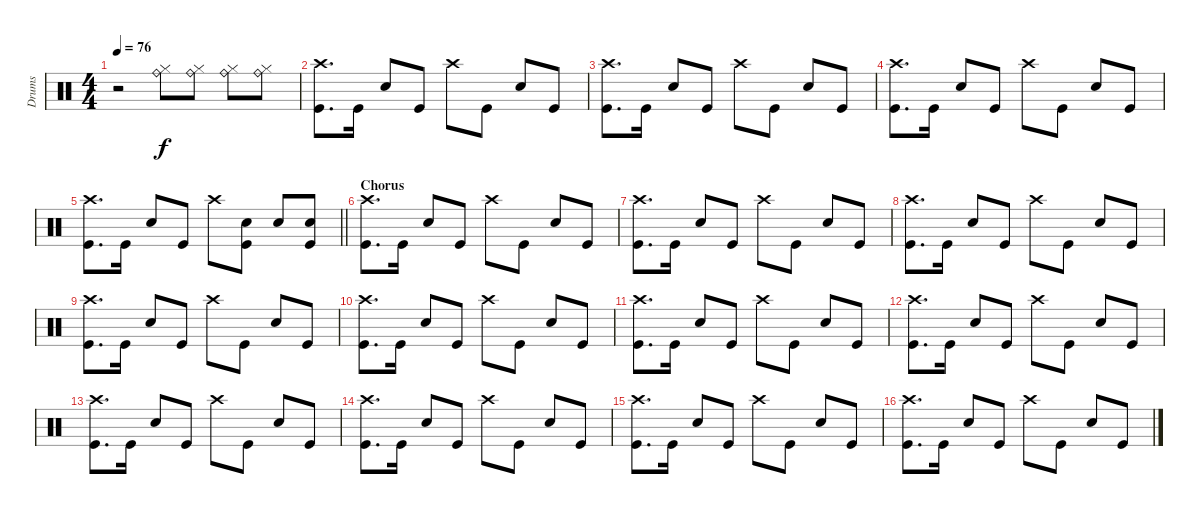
\track ("Drums" "Drums") {instrument percussion}
\staff {score}
\articulation defaults
\ts (4 4)
\tempo 76
\clef neutral
\ks c
r.2{dy f} ("Ride (bell)" "Hi-Hat (closed)").8 ("Ride (bell)" "Hi-Hat (closed)").8 ("Ride (bell)" "Hi-Hat (closed)").8 ("Ride (bell)" "Hi-Hat (closed)").8 |
("Crash high (hit)" "Kick (hit)").8{d} "Kick (hit)".16 "Snare (hit) 2".8 "Kick (hit)".8 "Crash high (hit)".8 "Kick (hit)".8 "Snare (hit) 2".8 "Kick (hit)".8 |
("Crash high (hit)" "Kick (hit)").8{d} "Kick (hit)".16 "Snare (hit) 2".8 "Kick (hit)".8 "Crash high (hit)".8 "Kick (hit)".8 "Snare (hit) 2".8 "Kick (hit)".8 |
("Crash high (hit)" "Kick (hit)").8{d} "Kick (hit)".16 "Snare (hit) 2".8 "Kick (hit)".8 "Crash high (hit)".8 "Kick (hit)".8 "Snare (hit) 2".8 "Kick (hit)".8 |
\barLineRight lightlight
("Crash high (hit)" "Kick (hit)").8{d} "Kick (hit)".16 "Snare (hit) 2".8 "Kick (hit)".8 "Crash high (hit)".8 ("Kick (hit)" "Snare (hit) 2").8 "Snare (hit) 2".8 ("Kick (hit)" "Snare (hit) 2").8 |
\section ("" "Chorus")
("Crash high (hit)" "Kick (hit)").8{d} "Kick (hit)".16 "Snare (hit) 2".8 "Kick (hit)".8 "Crash high (hit)".8 "Kick (hit)".8 "Snare (hit) 2".8 "Kick (hit)".8 |
("Crash high (hit)" "Kick (hit)").8{d} "Kick (hit)".16 "Snare (hit) 2".8 "Kick (hit)".8 "Crash high (hit)".8 "Kick (hit)".8 "Snare (hit) 2".8 "Kick (hit)".8 |
("Crash high (hit)" "Kick (hit)").8{d} "Kick (hit)".16 "Snare (hit) 2".8 "Kick (hit)".8 "Crash high (hit)".8 "Kick (hit)".8 "Snare (hit) 2".8 "Kick (hit)".8 |
("Crash high (hit)" "Kick (hit)").8{d} "Kick (hit)".16 "Snare (hit) 2".8 "Kick (hit)".8 "Crash high (hit)".8 "Kick (hit)".8 "Snare (hit) 2".8 "Kick (hit)".8 |
("Crash high (hit)" "Kick (hit)").8{d} "Kick (hit)".16 "Snare (hit) 2".8 "Kick (hit)".8 "Crash high (hit)".8 "Kick (hit)".8 "Snare (hit) 2".8 "Kick (hit)".8 |
("Crash high (hit)" "Kick (hit)").8{d} "Kick (hit)".16 "Snare (hit) 2".8 "Kick (hit)".8 "Crash high (hit)".8 "Kick (hit)".8 "Snare (hit) 2".8 "Kick (hit)".8 |
("Crash high (hit)" "Kick (hit)").8{d} "Kick (hit)".16 "Snare (hit) 2".8 "Kick (hit)".8 "Crash high (hit)".8 "Kick (hit)".8 "Snare (hit) 2".8 "Kick (hit)".8 |
("Crash high (hit)" "Kick (hit)").8{d} "Kick (hit)".16 "Snare (hit) 2".8 "Kick (hit)".8 "Crash high (hit)".8 "Kick (hit)".8 "Snare (hit) 2".8 "Kick (hit)".8 |
("Crash high (hit)" "Kick (hit)").8{d} "Kick (hit)".16 "Snare (hit) 2".8 "Kick (hit)".8 "Crash high (hit)".8 "Kick (hit)".8 "Snare (hit) 2".8 "Kick (hit)".8 |
("Crash high (hit)" "Kick (hit)").8{d} "Kick (hit)".16 "Snare (hit) 2".8 "Kick (hit)".8 "Crash high (hit)".8 "Kick (hit)".8 "Snare (hit) 2".8 "Kick (hit)".8 |
("Crash high (hit)" "Kick (hit)").8{d} "Kick (hit)".16 "Snare (hit) 2".8 "Kick (hit)".8 "Crash high (hit)".8 "Kick (hit)".8 "Snare (hit) 2".8 "Kick (hit)".8
